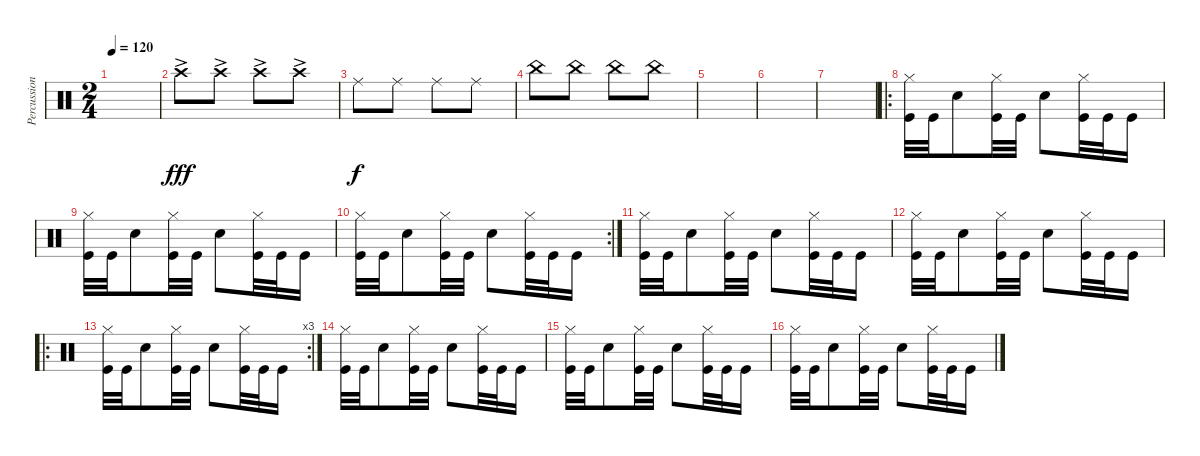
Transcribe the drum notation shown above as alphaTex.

\track ("Percussion" "Percussion") {instrument percussion}
\staff {score}
\articulation defaults
\ts (2 4)
\tempo 120
\clef neutral
\ks c
|
"Crash high (hit)"{ac}.8{dy fff} "Crash high (hit)"{ac}.8 "Crash high (hit)"{ac}.8 "Crash high (hit)"{ac}.8 |
"Ride (middle)".8{dy f} "Ride (middle)".8 "Ride (middle)".8 "Ride (middle)".8 |
"China (hit)".8 "China (hit)".8 "China (hit)".8 "China (hit)".8 |
|
|
|
\ro
("Hi-Hat (closed)" "Kick (hit)").32 "Kick (hit)".32 "Snare (hit) 2".8 ("Hi-Hat (closed)" "Kick (hit)").32 "Kick (hit)".32 "Snare (hit) 2".8 ("Hi-Hat (closed)" "Kick (hit)").32 "Kick (hit)".32 "Kick (hit)".16 |
("Hi-Hat (closed)" "Kick (hit)").32 "Kick (hit)".32 "Snare (hit) 2".8 ("Hi-Hat (closed)" "Kick (hit)").32 "Kick (hit)".32 "Snare (hit) 2".8 ("Hi-Hat (closed)" "Kick (hit)").32 "Kick (hit)".32 "Kick (hit)".16 |
\rc 2
("Hi-Hat (closed)" "Kick (hit)").32 "Kick (hit)".32 "Snare (hit) 2".8 ("Hi-Hat (closed)" "Kick (hit)").32 "Kick (hit)".32 "Snare (hit) 2".8 ("Hi-Hat (closed)" "Kick (hit)").32 "Kick (hit)".32 "Kick (hit)".16 |
("Hi-Hat (closed)" "Kick (hit)").32 "Kick (hit)".32 "Snare (hit) 2".8 ("Hi-Hat (closed)" "Kick (hit)").32 "Kick (hit)".32 "Snare (hit) 2".8 ("Hi-Hat (closed)" "Kick (hit)").32 "Kick (hit)".32 "Kick (hit)".16 |
("Hi-Hat (closed)" "Kick (hit)").32 "Kick (hit)".32 "Snare (hit) 2".8 ("Hi-Hat (closed)" "Kick (hit)").32 "Kick (hit)".32 "Snare (hit) 2".8 ("Hi-Hat (closed)" "Kick (hit)").32 "Kick (hit)".32 "Kick (hit)".16 |
\ro
\rc 3
("Hi-Hat (closed)" "Kick (hit)").32 "Kick (hit)".32 "Snare (hit) 2".8 ("Hi-Hat (closed)" "Kick (hit)").32 "Kick (hit)".32 "Snare (hit) 2".8 ("Hi-Hat (closed)" "Kick (hit)").32 "Kick (hit)".32 "Kick (hit)".16 |
("Hi-Hat (closed)" "Kick (hit)").32 "Kick (hit)".32 "Snare (hit) 2".8 ("Hi-Hat (closed)" "Kick (hit)").32 "Kick (hit)".32 "Snare (hit) 2".8 ("Hi-Hat (closed)" "Kick (hit)").32 "Kick (hit)".32 "Kick (hit)".16 |
("Hi-Hat (closed)" "Kick (hit)").32 "Kick (hit)".32 "Snare (hit) 2".8 ("Hi-Hat (closed)" "Kick (hit)").32 "Kick (hit)".32 "Snare (hit) 2".8 ("Hi-Hat (closed)" "Kick (hit)").32 "Kick (hit)".32 "Kick (hit)".16 |
("Hi-Hat (closed)" "Kick (hit)").32 "Kick (hit)".32 "Snare (hit) 2".8 ("Hi-Hat (closed)" "Kick (hit)").32 "Kick (hit)".32 "Snare (hit) 2".8 ("Hi-Hat (closed)" "Kick (hit)").32 "Kick (hit)".32 "Kick (hit)".16
